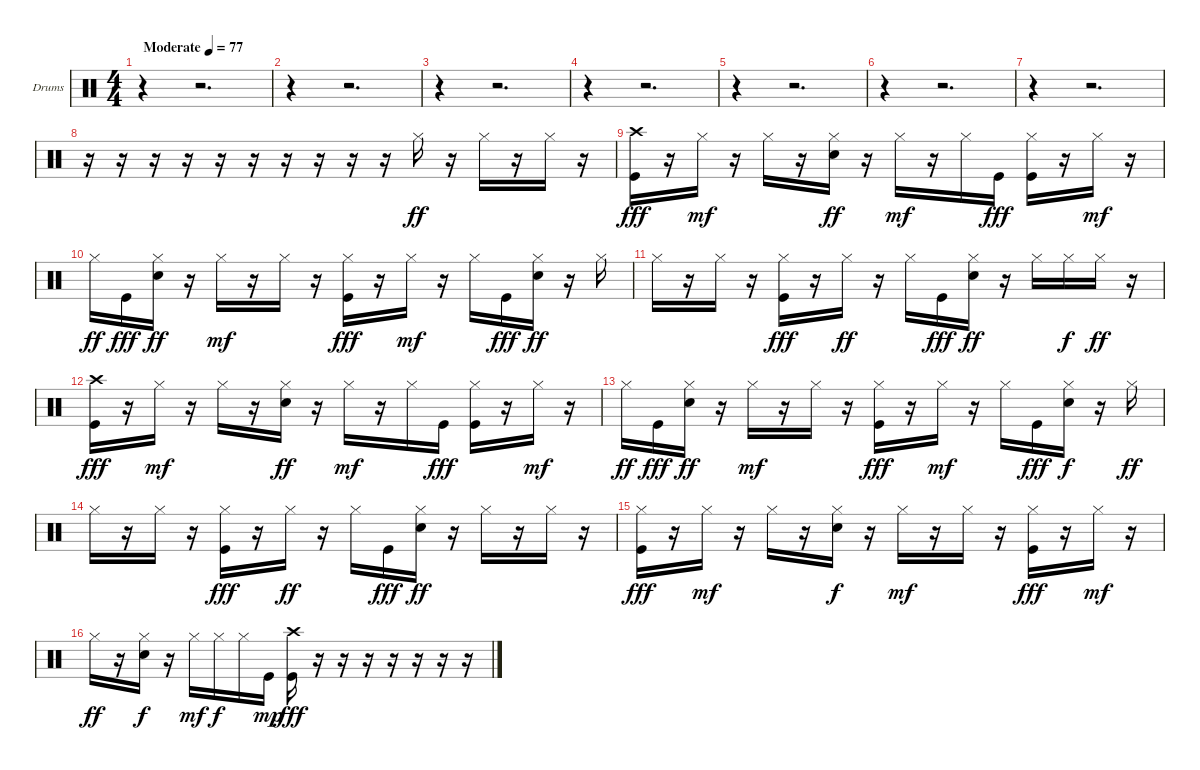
\bracketExtendMode groupsimilarinstruments
\firstSystemTrackNameOrientation horizontal
\otherSystemsTrackNameOrientation horizontal
\track ("Drumkit" "Drums") {instrument percussion}
\staff {score}
\articulation defaults
\ts (4 4)
\beaming (8 2 2 2 2)
\tempo (77 "Moderate")
\clef neutral
\ks c
r.4{dy ff} r.2{d} |
r.4 r.2{d} |
r.4 r.2{d} |
r.4 r.2{d} |
r.4 r.2{d} |
r.4 r.2{d} |
r.4 r.2{d} |
r.16 r.16 r.16 r.16 r.16 r.16 r.16 r.16 r.16 r.16 "Hi-Hat (closed)".16 r.16 "Hi-Hat (closed)".16 r.16 "Hi-Hat (closed)".16 r.16 |
("Kick (hit)" "Crash high (hit)").16{dy fff} r.16 "Hi-Hat (closed)".16{dy mf} r.16 "Hi-Hat (closed)".16 r.16 ("Snare (hit) 2" "Hi-Hat (closed)").16{dy ff} r.16 "Hi-Hat (closed)".16{dy mf} r.16 "Hi-Hat (closed)".16 "Kick (hit)".16{dy fff} ("Kick (hit)" "Hi-Hat (closed)").16 r.16 "Hi-Hat (closed)".16{dy mf} r.16 |
"Hi-Hat (closed)".16{dy ff} "Kick (hit)".16{dy fff} ("Snare (hit) 2" "Hi-Hat (closed)").16{dy ff} r.16 "Hi-Hat (closed)".16{dy mf} r.16 "Hi-Hat (closed)".16 r.16 ("Kick (hit)" "Hi-Hat (closed)").16{dy fff} r.16 "Hi-Hat (closed)".16{dy mf} r.16 "Hi-Hat (closed)".16 "Kick (hit)".16{dy fff} ("Snare (hit) 2" "Hi-Hat (closed)").16{dy ff} r.16 "Hi-Hat (closed)".16 |
"Hi-Hat (closed)".16 r.16 "Hi-Hat (closed)".16 r.16 ("Kick (hit)" "Hi-Hat (closed)").16{dy fff} r.16 "Hi-Hat (closed)".16{dy ff} r.16 "Hi-Hat (closed)".16 "Kick (hit)".16{dy fff} ("Snare (hit) 2" "Hi-Hat (closed)").16{dy ff} r.16 "Hi-Hat (closed)".16 "Hi-Hat (closed)".16{dy f} "Hi-Hat (closed)".16{dy ff} r.16 |
("Kick (hit)" "Crash high (hit)").16{dy fff} r.16 "Hi-Hat (closed)".16{dy mf} r.16 "Hi-Hat (closed)".16 r.16 ("Snare (hit) 2" "Hi-Hat (closed)").16{dy ff} r.16 "Hi-Hat (closed)".16{dy mf} r.16 "Hi-Hat (closed)".16 "Kick (hit)".16{dy fff} ("Kick (hit)" "Hi-Hat (closed)").16 r.16 "Hi-Hat (closed)".16{dy mf} r.16 |
"Hi-Hat (closed)".16{dy ff} "Kick (hit)".16{dy fff} ("Snare (hit) 2" "Hi-Hat (closed)").16{dy ff} r.16 "Hi-Hat (closed)".16{dy mf} r.16 "Hi-Hat (closed)".16 r.16 ("Kick (hit)" "Hi-Hat (closed)").16{dy fff} r.16 "Hi-Hat (closed)".16{dy mf} r.16 "Hi-Hat (closed)".16 "Kick (hit)".16{dy fff} ("Snare (hit) 2" "Hi-Hat (closed)").16{dy f} r.16 "Hi-Hat (closed)".16{dy ff} |
"Hi-Hat (closed)".16 r.16 "Hi-Hat (closed)".16 r.16 ("Kick (hit)" "Hi-Hat (closed)").16{dy fff} r.16 "Hi-Hat (closed)".16{dy ff} r.16 "Hi-Hat (closed)".16 "Kick (hit)".16{dy fff} ("Snare (hit) 2" "Hi-Hat (closed)").16{dy ff} r.16 "Hi-Hat (closed)".16 r.16 "Hi-Hat (closed)".16 r.16 |
("Kick (hit)" "Hi-Hat (closed)").16{dy fff} r.16 "Hi-Hat (closed)".16{dy mf} r.16 "Hi-Hat (closed)".16 r.16 ("Snare (hit) 2" "Hi-Hat (closed)").16{dy f} r.16 "Hi-Hat (closed)".16{dy mf} r.16 "Hi-Hat (closed)".16 r.16 ("Kick (hit)" "Hi-Hat (closed)").16{dy fff} r.16 "Hi-Hat (closed)".16{dy mf} r.16 |
"Hi-Hat (closed)".16{dy ff} r.16 ("Snare (hit) 2" "Hi-Hat (closed)").16{dy f} r.16 "Hi-Hat (closed)".16{dy mf} "Hi-Hat (closed)".16{dy f} "Hi-Hat (closed)".16 "Kick (hit)".16{dy mp} ("Kick (hit)" "Crash high (hit)").16{dy fff} r.16 r.16 r.16 r.16 r.16 r.16 r.16
